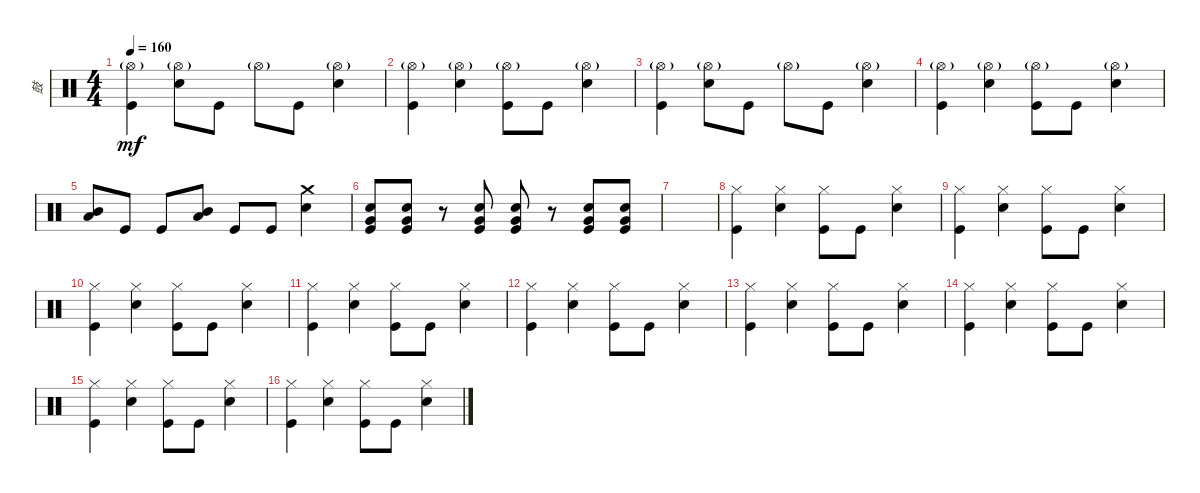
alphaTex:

\track ("鼓" "鼓") {instrument percussion}
\staff {score}
\articulation defaults
\ts (4 4)
\tempo 160
\clef neutral
\ks c
("Kick (hit)" "Hi-Hat (open)"{g}).4{dy mf} ("Snare (hit) 2" "Hi-Hat (open)"{g}).8 "Kick (hit)".8 "Hi-Hat (open)"{g}.8 "Kick (hit)".8 ("Snare (hit) 2" "Hi-Hat (open)"{g}).4 |
("Kick (hit)" "Hi-Hat (open)"{g}).4 ("Hi-Hat (open)"{g} "Snare (hit) 2").4 ("Kick (hit)" "Hi-Hat (open)"{g}).8 "Kick (hit)".8 ("Snare (hit) 2" "Hi-Hat (open)"{g}).4 |
("Kick (hit)" "Hi-Hat (open)"{g}).4 ("Snare (hit) 2" "Hi-Hat (open)"{g}).8 "Kick (hit)".8 "Hi-Hat (open)"{g}.8 "Kick (hit)".8 ("Snare (hit) 2" "Hi-Hat (open)"{g}).4 |
("Kick (hit)" "Hi-Hat (open)"{g}).4 ("Hi-Hat (open)"{g} "Snare (hit) 2").4 ("Kick (hit)" "Hi-Hat (open)"{g}).8 "Kick (hit)".8 ("Snare (hit) 2" "Hi-Hat (open)"{g}).4 |
("Low Tom (hit)" "Mid Tom (hit)").8 "Kick (hit)".8 "Kick (hit)".8 ("Low Tom (hit)" "Mid Tom (hit)").8 "Kick (hit)".8 "Kick (hit)".8 ("Snare (hit) 2" "Crash medium (hit)").4 |
("Kick (hit)" "Very Low Tom (hit)" "Snare (hit) 2").8 ("Kick (hit)" "Very Low Tom (hit)" "Snare (hit) 2").8 r.8 ("Kick (hit)" "Very Low Tom (hit)" "Snare (hit) 2").8 ("Kick (hit)" "Very Low Tom (hit)" "Snare (hit) 2").8 r.8 ("Kick (hit)" "Very Low Tom (hit)" "Snare (hit) 2").8 ("Kick (hit)" "Very Low Tom (hit)" "Snare (hit) 2").8 |
|
("Kick (hit)" "Hi-Hat (closed)").4 ("Hi-Hat (closed)" "Snare (hit) 2").4 ("Kick (hit)" "Hi-Hat (closed)").8 "Kick (hit)".8 ("Snare (hit) 2" "Hi-Hat (closed)").4 |
("Kick (hit)" "Hi-Hat (closed)").4 ("Hi-Hat (closed)" "Snare (hit) 2").4 ("Kick (hit)" "Hi-Hat (closed)").8 "Kick (hit)".8 ("Snare (hit) 2" "Hi-Hat (closed)").4 |
("Kick (hit)" "Hi-Hat (closed)").4 ("Hi-Hat (closed)" "Snare (hit) 2").4 ("Kick (hit)" "Hi-Hat (closed)").8 "Kick (hit)".8 ("Snare (hit) 2" "Hi-Hat (closed)").4 |
("Kick (hit)" "Hi-Hat (closed)").4 ("Hi-Hat (closed)" "Snare (hit) 2").4 ("Kick (hit)" "Hi-Hat (closed)").8 "Kick (hit)".8 ("Snare (hit) 2" "Hi-Hat (closed)").4 |
("Kick (hit)" "Hi-Hat (closed)").4 ("Hi-Hat (closed)" "Snare (hit) 2").4 ("Kick (hit)" "Hi-Hat (closed)").8 "Kick (hit)".8 ("Snare (hit) 2" "Hi-Hat (closed)").4 |
("Kick (hit)" "Hi-Hat (closed)").4 ("Hi-Hat (closed)" "Snare (hit) 2").4 ("Kick (hit)" "Hi-Hat (closed)").8 "Kick (hit)".8 ("Snare (hit) 2" "Hi-Hat (closed)").4 |
("Kick (hit)" "Hi-Hat (closed)").4 ("Hi-Hat (closed)" "Snare (hit) 2").4 ("Kick (hit)" "Hi-Hat (closed)").8 "Kick (hit)".8 ("Snare (hit) 2" "Hi-Hat (closed)").4 |
("Kick (hit)" "Hi-Hat (closed)").4 ("Hi-Hat (closed)" "Snare (hit) 2").4 ("Kick (hit)" "Hi-Hat (closed)").8 "Kick (hit)".8 ("Snare (hit) 2" "Hi-Hat (closed)").4 |
("Kick (hit)" "Hi-Hat (closed)").4 ("Hi-Hat (closed)" "Snare (hit) 2").4 ("Kick (hit)" "Hi-Hat (closed)").8 "Kick (hit)".8 ("Snare (hit) 2" "Hi-Hat (closed)").4
